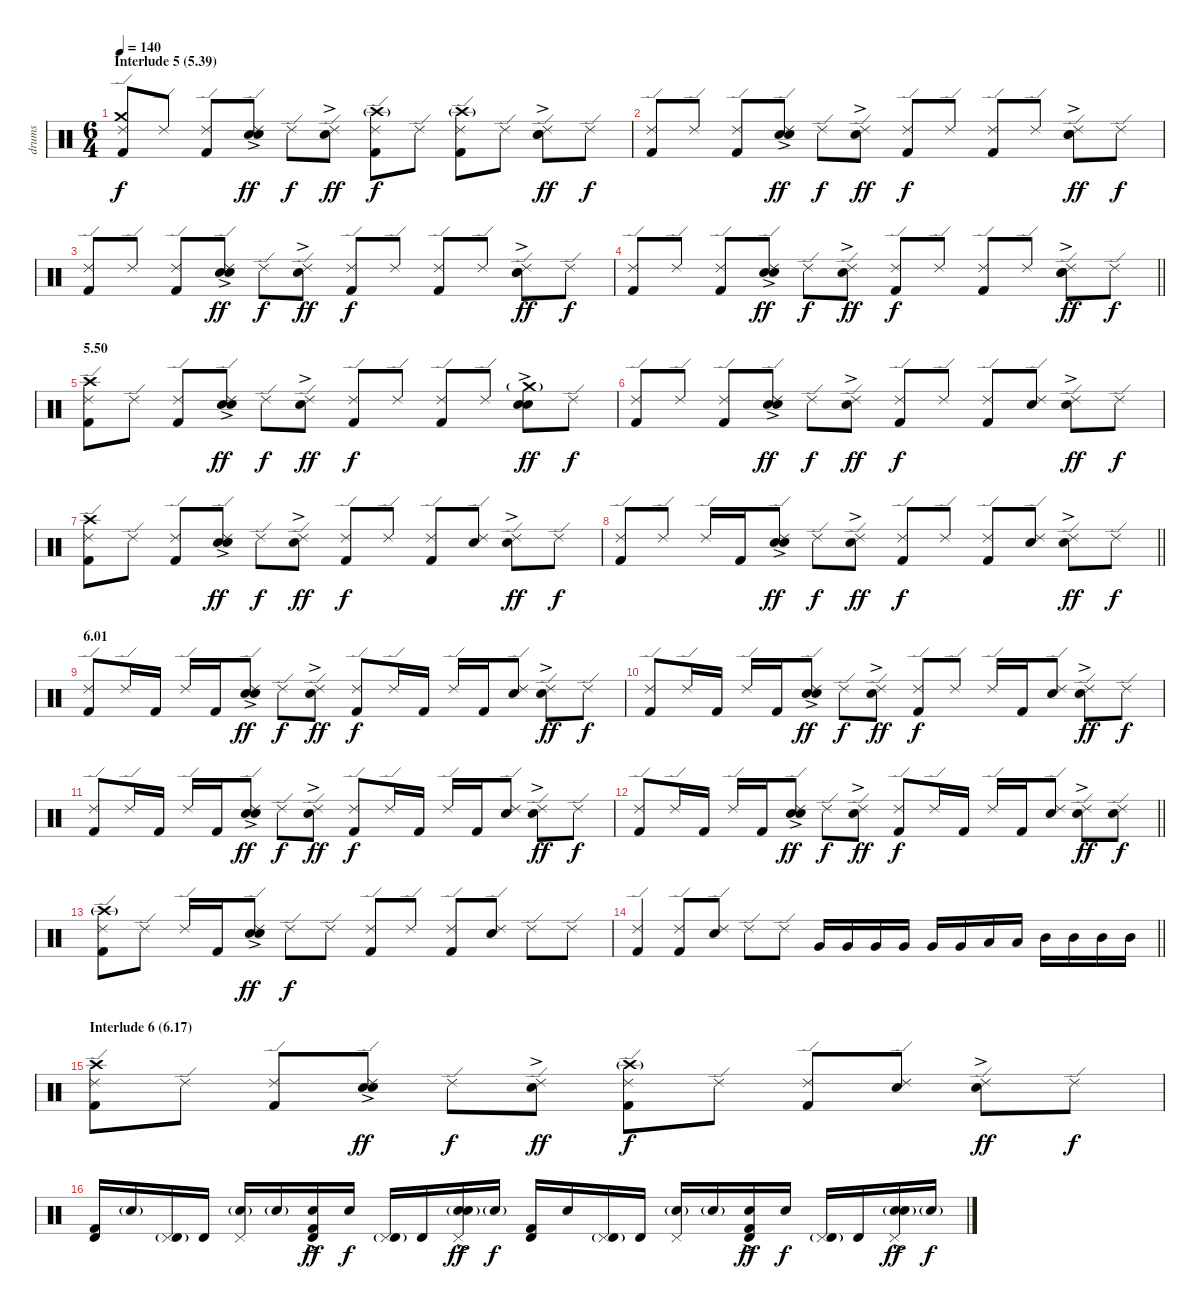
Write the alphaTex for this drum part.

\track ("drums" "drums") {instrument percussion}
\staff {score}
\articulation defaults
\ts (6 4)
\section ("" "Interlude 5 (5.39)")
\tempo 140
\clef neutral
\ks c
("Ride (edge) 2" "Crash medium (hit)" "Kick (hit) 2").8{dy f} "Ride (edge) 2".8 ("Ride (edge) 2" "Kick (hit) 2").8 ("Ride (edge) 2" "Hand Clap (hit)"{ac} "Electric Snare (hit)").8{dy ff} "Ride (edge) 2".8{dy f} ("Ride (edge) 2" "Hand Clap (hit)"{ac}).8{dy ff} ("Ride (edge) 2" "Crash high (hit)"{g} "Kick (hit) 2").8{dy f} "Ride (edge) 2".8 ("Ride (edge) 2" "Crash high (hit)"{g} "Kick (hit) 2").8 "Ride (edge) 2".8 ("Ride (edge) 2" "Hand Clap (hit)"{ac} "Electric Snare (hit)").8{dy ff} "Ride (edge) 2".8{dy f} |
("Ride (edge) 2" "Kick (hit) 2").8 "Ride (edge) 2".8 ("Ride (edge) 2" "Kick (hit) 2").8 ("Ride (edge) 2" "Hand Clap (hit)"{ac} "Electric Snare (hit)").8{dy ff} "Ride (edge) 2".8{dy f} ("Ride (edge) 2" "Hand Clap (hit)"{ac}).8{dy ff} ("Ride (edge) 2" "Kick (hit) 2").8{dy f} "Ride (edge) 2".8 ("Ride (edge) 2" "Kick (hit) 2").8 "Ride (edge) 2".8 ("Ride (edge) 2" "Hand Clap (hit)"{ac} "Electric Snare (hit)").8{dy ff} "Ride (edge) 2".8{dy f} |
("Ride (edge) 2" "Kick (hit) 2").8 "Ride (edge) 2".8 ("Ride (edge) 2" "Kick (hit) 2").8 ("Ride (edge) 2" "Hand Clap (hit)"{ac} "Electric Snare (hit)").8{dy ff} "Ride (edge) 2".8{dy f} ("Ride (edge) 2" "Hand Clap (hit)"{ac}).8{dy ff} ("Ride (edge) 2" "Kick (hit) 2").8{dy f} "Ride (edge) 2".8 ("Ride (edge) 2" "Kick (hit) 2").8 "Ride (edge) 2".8 ("Ride (edge) 2" "Hand Clap (hit)"{ac} "Electric Snare (hit)").8{dy ff} "Ride (edge) 2".8{dy f} |
\barLineRight lightlight
("Ride (edge) 2" "Kick (hit) 2").8 "Ride (edge) 2".8 ("Ride (edge) 2" "Kick (hit) 2").8 ("Ride (edge) 2" "Hand Clap (hit)"{ac} "Electric Snare (hit)").8{dy ff} "Ride (edge) 2".8{dy f} ("Ride (edge) 2" "Hand Clap (hit)"{ac}).8{dy ff} ("Ride (edge) 2" "Kick (hit) 2").8{dy f} "Ride (edge) 2".8 ("Ride (edge) 2" "Kick (hit) 2").8 "Ride (edge) 2".8 ("Ride (edge) 2" "Hand Clap (hit)"{ac} "Electric Snare (hit)").8{dy ff} "Ride (edge) 2".8{dy f} |
\section ("" "5.50")
("Ride (edge) 2" "Crash high (hit)" "Kick (hit) 2").8 "Ride (edge) 2".8 ("Ride (edge) 2" "Kick (hit) 2").8 ("Ride (edge) 2" "Hand Clap (hit)"{ac} "Electric Snare (hit)").8{dy ff} "Ride (edge) 2".8{dy f} ("Ride (edge) 2" "Hand Clap (hit)"{ac}).8{dy ff} ("Ride (edge) 2" "Kick (hit) 2").8{dy f} "Ride (edge) 2".8 ("Ride (edge) 2" "Kick (hit) 2").8 "Ride (edge) 2".8 ("Hand Clap (hit)"{ac} "Crash medium (hit)"{g} "Electric Snare (hit)").8{dy ff} "Ride (edge) 2".8{dy f} |
("Ride (edge) 2" "Kick (hit) 2").8 "Ride (edge) 2".8 ("Ride (edge) 2" "Kick (hit) 2").8 ("Ride (edge) 2" "Hand Clap (hit)"{ac} "Electric Snare (hit)").8{dy ff} "Ride (edge) 2".8{dy f} ("Ride (edge) 2" "Hand Clap (hit)"{ac}).8{dy ff} ("Ride (edge) 2" "Kick (hit) 2").8{dy f} "Ride (edge) 2".8 ("Ride (edge) 2" "Kick (hit) 2").8 ("Ride (edge) 2" "Electric Snare (hit)").8 ("Ride (edge) 2" "Hand Clap (hit)"{ac}).8{dy ff} "Ride (edge) 2".8{dy f} |
("Ride (edge) 2" "Crash high (hit)" "Kick (hit) 2").8 "Ride (edge) 2".8 ("Ride (edge) 2" "Kick (hit) 2").8 ("Ride (edge) 2" "Hand Clap (hit)"{ac} "Electric Snare (hit)").8{dy ff} "Ride (edge) 2".8{dy f} ("Ride (edge) 2" "Hand Clap (hit)"{ac}).8{dy ff} ("Ride (edge) 2" "Kick (hit) 2").8{dy f} "Ride (edge) 2".8 ("Ride (edge) 2" "Kick (hit) 2").8 ("Ride (edge) 2" "Electric Snare (hit)").8 ("Ride (edge) 2" "Hand Clap (hit)"{ac}).8{dy ff} "Ride (edge) 2".8{dy f} |
\barLineRight lightlight
("Ride (edge) 2" "Kick (hit) 2").8 "Ride (edge) 2".8 "Ride (edge) 2".16 "Kick (hit) 2".16 ("Ride (edge) 2" "Hand Clap (hit)"{ac} "Electric Snare (hit)").8{dy ff} "Ride (edge) 2".8{dy f} ("Ride (edge) 2" "Hand Clap (hit)"{ac}).8{dy ff} ("Ride (edge) 2" "Kick (hit) 2").8{dy f} "Ride (edge) 2".8 ("Ride (edge) 2" "Kick (hit) 2").8 ("Ride (edge) 2" "Electric Snare (hit)").8 ("Ride (edge) 2" "Hand Clap (hit)"{ac}).8{dy ff} "Ride (edge) 2".8{dy f} |
\section ("" "6.01")
("Ride (edge) 2" "Kick (hit) 2").8 "Ride (edge) 2".16 "Kick (hit) 2".16 "Ride (edge) 2".16 "Kick (hit) 2".16 ("Ride (edge) 2" "Hand Clap (hit)"{ac} "Electric Snare (hit)").8{dy ff} "Ride (edge) 2".8{dy f} ("Ride (edge) 2" "Hand Clap (hit)"{ac}).8{dy ff} ("Ride (edge) 2" "Kick (hit) 2").8{dy f} "Ride (edge) 2".16 "Kick (hit) 2".16 "Ride (edge) 2".16 "Kick (hit) 2".16 ("Ride (edge) 2" "Electric Snare (hit)").8 ("Ride (edge) 2" "Hand Clap (hit)"{ac}).8{dy ff} "Ride (edge) 2".8{dy f} |
("Ride (edge) 2" "Kick (hit) 2").8 "Ride (edge) 2".16 "Kick (hit) 2".16 "Ride (edge) 2".16 "Kick (hit) 2".16 ("Ride (edge) 2" "Hand Clap (hit)"{ac} "Electric Snare (hit)").8{dy ff} "Ride (edge) 2".8{dy f} ("Ride (edge) 2" "Hand Clap (hit)"{ac}).8{dy ff} ("Ride (edge) 2" "Kick (hit) 2").8{dy f} "Ride (edge) 2".8 "Ride (edge) 2".16 "Kick (hit) 2".16 ("Ride (edge) 2" "Electric Snare (hit)").8 ("Ride (edge) 2" "Hand Clap (hit)"{ac}).8{dy ff} "Ride (edge) 2".8{dy f} |
("Ride (edge) 2" "Kick (hit) 2").8 "Ride (edge) 2".16 "Kick (hit) 2".16 "Ride (edge) 2".16 "Kick (hit) 2".16 ("Ride (edge) 2" "Hand Clap (hit)"{ac} "Electric Snare (hit)").8{dy ff} "Ride (edge) 2".8{dy f} ("Ride (edge) 2" "Hand Clap (hit)"{ac}).8{dy ff} ("Ride (edge) 2" "Kick (hit) 2").8{dy f} "Ride (edge) 2".16 "Kick (hit) 2".16 "Ride (edge) 2".16 "Kick (hit) 2".16 ("Ride (edge) 2" "Electric Snare (hit)").8 ("Ride (edge) 2" "Hand Clap (hit)"{ac}).8{dy ff} "Ride (edge) 2".8{dy f} |
\barLineRight lightlight
("Ride (edge) 2" "Kick (hit) 2").8 "Ride (edge) 2".16 "Kick (hit) 2".16 "Ride (edge) 2".16 "Kick (hit) 2".16 ("Ride (edge) 2" "Hand Clap (hit)"{ac} "Electric Snare (hit)").8{dy ff} "Ride (edge) 2".8{dy f} ("Ride (edge) 2" "Hand Clap (hit)"{ac}).8{dy ff} ("Ride (edge) 2" "Kick (hit) 2").8{dy f} "Ride (edge) 2".16 "Kick (hit) 2".16 "Ride (edge) 2".16 "Kick (hit) 2".16 ("Ride (edge) 2" "Electric Snare (hit)").8 ("Ride (edge) 2" "Hand Clap (hit)"{ac}).8{dy ff} ("Ride (edge) 2" "Electric Snare (hit)").8{dy f} |
("Ride (edge) 2" "Crash high (hit)"{g} "Kick (hit) 2").8 "Ride (edge) 2".8 "Ride (edge) 2".16 "Kick (hit) 2".16 ("Ride (edge) 2" "Hand Clap (hit)"{ac} "Electric Snare (hit)").8{dy ff} "Ride (edge) 2".8{dy f} "Ride (edge) 2".8 ("Ride (edge) 2" "Kick (hit) 2").8 "Ride (edge) 2".8 ("Ride (edge) 2" "Kick (hit) 2").8 ("Ride (edge) 2" "Electric Snare (hit)").8 "Ride (edge) 2".8 "Ride (edge) 2".8 |
\barLineRight lightlight
("Ride (edge) 2" "Kick (hit) 2").4 ("Ride (edge) 2" "Kick (hit) 2").8 ("Ride (edge) 2" "Electric Snare (hit)").8 "Ride (edge) 2".8 "Ride (edge) 2".8 "Very Low Tom (hit)".16 "Very Low Tom (hit)".16 "Very Low Tom (hit)".16 "Very Low Tom (hit)".16 "Very Low Tom (hit)".16 "Very Low Tom (hit)".16 "Low Tom (hit)".16 "Low Tom (hit)".16 "Mid Tom (hit)".16 "Mid Tom (hit)".16 "Mid Tom (hit)".16 "Mid Tom (hit)".16 |
\section ("" "Interlude 6 (6.17)")
("Ride (edge) 2" "Crash high (hit)" "Kick (hit) 2").8 "Ride (edge) 2".8 ("Ride (edge) 2" "Kick (hit) 2").8 ("Ride (edge) 2" "Hand Clap (hit)"{ac} "Electric Snare (hit)").8{dy ff} "Ride (edge) 2".8{dy f} ("Ride (edge) 2" "Hand Clap (hit)"{ac}).8{dy ff} ("Ride (edge) 2" "Crash high (hit)"{g} "Kick (hit) 2").8{dy f} "Ride (edge) 2".8 ("Ride (edge) 2" "Kick (hit) 2").8 ("Ride (edge) 2" "Electric Snare (hit)").8 ("Ride (edge) 2" "Hand Clap (hit)"{ac}).8{dy ff} "Ride (edge) 2".8{dy f} |
("Timbale high (hit)" "Kick (hit) 2").16 "Electric Snare (hit)"{g}.16 ("Pedal Hi-Hat (hit)" "Timbale high (hit)"{g}).16 "Timbale high (hit)".16 ("Pedal Hi-Hat (hit)" "Electric Snare (hit)"{g}).16 "Electric Snare (hit)"{g}.16 ("Timbale high (hit)" "Hand Clap (hit)"{ac} "Kick (hit) 2").16{dy ff} "Electric Snare (hit)".16{dy f} ("Pedal Hi-Hat (hit)" "Timbale high (hit)"{g}).16 "Timbale high (hit)".16 ("Pedal Hi-Hat (hit)" "Hand Clap (hit)"{ac} "Electric Snare (hit)"{g}).16{dy ff} "Electric Snare (hit)"{g}.16{dy f} ("Timbale high (hit)" "Kick (hit) 2").16 "Electric Snare (hit)".16 ("Pedal Hi-Hat (hit)" "Timbale high (hit)"{g}).16 "Timbale high (hit)".16 ("Pedal Hi-Hat (hit)" "Electric Snare (hit)"{g}).16 "Electric Snare (hit)"{g}.16 ("Timbale high (hit)" "Hand Clap (hit)"{ac} "Kick (hit) 2").16{dy ff} "Electric Snare (hit)".16{dy f} ("Pedal Hi-Hat (hit)" "Timbale high (hit)"{g}).16 "Timbale high (hit)".16 ("Pedal Hi-Hat (hit)" "Hand Clap (hit)"{ac} "Electric Snare (hit)"{g}).16{dy ff} "Electric Snare (hit)"{g}.16{dy f}
